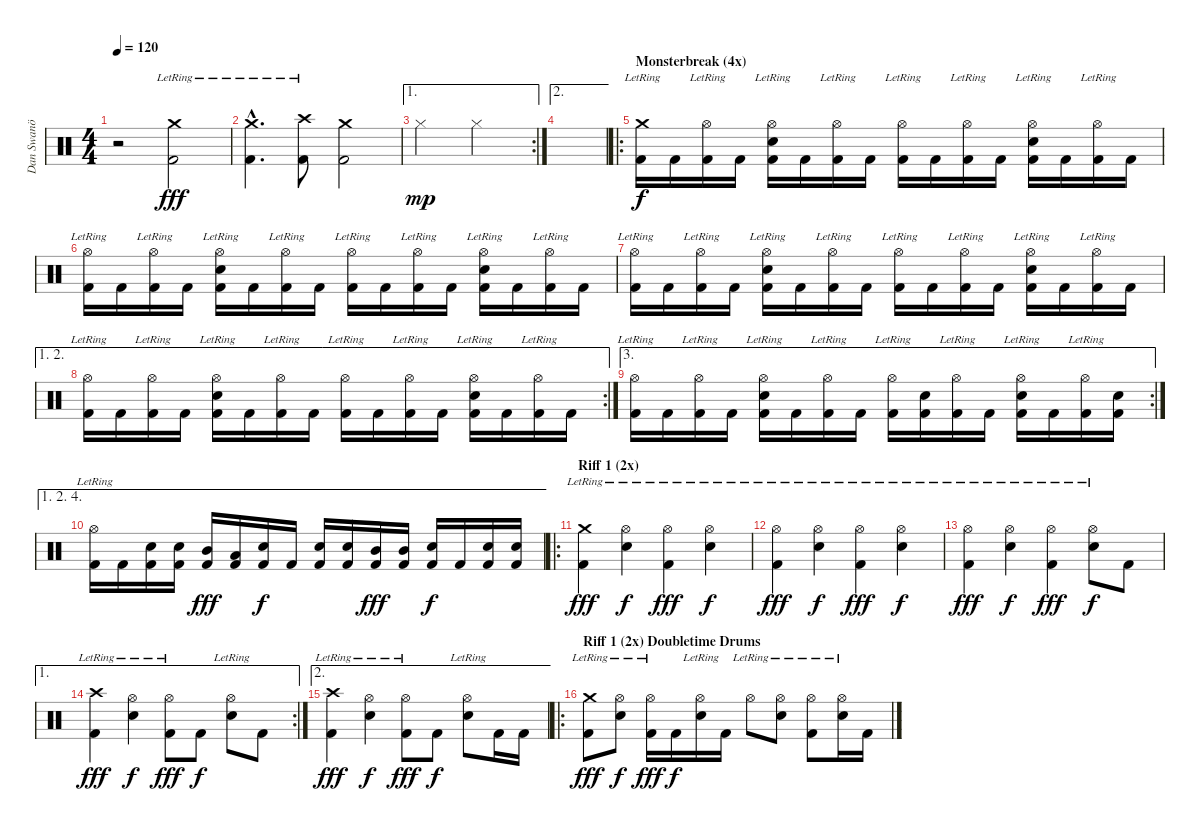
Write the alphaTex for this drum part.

\track ("Dan Swanö" "Dan Swanö") {instrument percussion}
\staff {score}
\articulation defaults
\ts (4 4)
\tempo 120
\clef neutral
\ks c
r.2{dy fff} ("Crash medium (hit)"{lr} "Kick (hit) 2").2 |
("Crash medium (hit)"{hac lr} "Kick (hit) 2"{hac}).4{d} ("Crash high (hit)"{lr} "Kick (hit) 2").8 ("Crash medium (hit)" "Kick (hit) 2").2 |
\ae 1
\rc 2 "Hi-Hat (closed)".2{dy mp} "Hi-Hat (closed)".2
|
\ae 2
|
\ro
\section ("" "Monsterbreak (4x)")
("Crash medium (hit)"{lr} "Kick (hit) 2").16{dy f} "Kick (hit) 2".16 ("Hi-Hat (open)"{lr} "Kick (hit) 2").16 "Kick (hit) 2".16 ("Hi-Hat (open)"{lr} "Electric Snare (hit)" "Kick (hit) 2").16 "Kick (hit) 2".16 ("Hi-Hat (open)"{lr} "Kick (hit) 2").16 "Kick (hit) 2".16 ("Hi-Hat (open)"{lr} "Kick (hit) 2").16 "Kick (hit) 2".16 ("Hi-Hat (open)"{lr} "Kick (hit) 2").16 "Kick (hit) 2".16 ("Hi-Hat (open)"{lr} "Electric Snare (hit)" "Kick (hit) 2").16 "Kick (hit) 2".16 ("Hi-Hat (open)"{lr} "Kick (hit) 2").16 "Kick (hit) 2".16 |
("Hi-Hat (open)"{lr} "Kick (hit) 2").16 "Kick (hit) 2".16 ("Hi-Hat (open)"{lr} "Kick (hit) 2").16 "Kick (hit) 2".16 ("Hi-Hat (open)"{lr} "Electric Snare (hit)" "Kick (hit) 2").16 "Kick (hit) 2".16 ("Hi-Hat (open)"{lr} "Kick (hit) 2").16 "Kick (hit) 2".16 ("Hi-Hat (open)"{lr} "Kick (hit) 2").16 "Kick (hit) 2".16 ("Hi-Hat (open)"{lr} "Kick (hit) 2").16 "Kick (hit) 2".16 ("Hi-Hat (open)"{lr} "Electric Snare (hit)" "Kick (hit) 2").16 "Kick (hit) 2".16 ("Hi-Hat (open)"{lr} "Kick (hit) 2").16 "Kick (hit) 2".16 |
("Hi-Hat (open)"{lr} "Kick (hit) 2").16 "Kick (hit) 2".16 ("Hi-Hat (open)"{lr} "Kick (hit) 2").16 "Kick (hit) 2".16 ("Hi-Hat (open)"{lr} "Electric Snare (hit)" "Kick (hit) 2").16 "Kick (hit) 2".16 ("Hi-Hat (open)"{lr} "Kick (hit) 2").16 "Kick (hit) 2".16 ("Hi-Hat (open)"{lr} "Kick (hit) 2").16 "Kick (hit) 2".16 ("Hi-Hat (open)"{lr} "Kick (hit) 2").16 "Kick (hit) 2".16 ("Hi-Hat (open)"{lr} "Electric Snare (hit)" "Kick (hit) 2").16 "Kick (hit) 2".16 ("Hi-Hat (open)"{lr} "Kick (hit) 2").16 "Kick (hit) 2".16 |
\ae (1 2)
\rc 2
("Hi-Hat (open)"{lr} "Kick (hit) 2").16 "Kick (hit) 2".16 ("Hi-Hat (open)"{lr} "Kick (hit) 2").16 "Kick (hit) 2".16 ("Hi-Hat (open)"{lr} "Electric Snare (hit)" "Kick (hit) 2").16 "Kick (hit) 2".16 ("Hi-Hat (open)"{lr} "Kick (hit) 2").16 "Kick (hit) 2".16 ("Hi-Hat (open)"{lr} "Kick (hit) 2").16 "Kick (hit) 2".16 ("Hi-Hat (open)"{lr} "Kick (hit) 2").16 "Kick (hit) 2".16 ("Hi-Hat (open)"{lr} "Electric Snare (hit)" "Kick (hit) 2").16 "Kick (hit) 2".16 ("Hi-Hat (open)"{lr} "Kick (hit) 2").16 "Kick (hit) 2".16 |
\ae 3
\rc 2
("Hi-Hat (open)"{lr} "Kick (hit) 2").16 "Kick (hit) 2".16 ("Hi-Hat (open)"{lr} "Kick (hit) 2").16 "Kick (hit) 2".16 ("Hi-Hat (open)"{lr} "Electric Snare (hit)" "Kick (hit) 2").16 "Kick (hit) 2".16 ("Hi-Hat (open)"{lr} "Kick (hit) 2").16 "Kick (hit) 2".16 ("Hi-Hat (open)"{lr} "Kick (hit) 2").16 ("Electric Snare (hit)" "Kick (hit) 2").16 ("Hi-Hat (open)"{lr} "Kick (hit) 2").16 "Kick (hit) 2".16 ("Hi-Hat (open)"{lr} "Electric Snare (hit)" "Kick (hit) 2").16 "Kick (hit) 2".16 ("Hi-Hat (open)"{lr} "Kick (hit) 2").16 ("Electric Snare (hit)" "Kick (hit) 2").16 |
\ae (1 2 4)
("Hi-Hat (open)"{lr} "Kick (hit) 2").16 "Kick (hit) 2".16 ("Electric Snare (hit)" "Kick (hit) 2").16 ("Electric Snare (hit)" "Kick (hit) 2").16 ("Mid Tom (hit)" "Kick (hit) 2").16{dy fff} ("Low Tom (hit)" "Kick (hit) 2").16 ("Electric Snare (hit)" "Kick (hit) 2").16{dy f} "Kick (hit) 2".16 ("Electric Snare (hit)" "Kick (hit) 2").16 ("Electric Snare (hit)" "Kick (hit) 2").16 ("Mid Tom (hit)" "Kick (hit) 2").16{dy fff} ("Mid Tom (hit)" "Kick (hit) 2").16 ("Electric Snare (hit)" "Kick (hit) 2").16{dy f} "Kick (hit) 2".16 ("Electric Snare (hit)" "Kick (hit) 2").16 ("Electric Snare (hit)" "Kick (hit) 2").16 |
\ro
\section ("" "Riff 1 (2x)")
("Crash medium (hit)"{lr} "Kick (hit) 2").4{dy fff} ("Hi-Hat (open)"{lr} "Electric Snare (hit)").4{dy f} ("Hi-Hat (open)"{lr} "Kick (hit) 2").4{dy fff} ("Hi-Hat (open)"{lr} "Electric Snare (hit)").4{dy f} |
("Hi-Hat (open)"{lr} "Kick (hit) 2").4{dy fff} ("Hi-Hat (open)"{lr} "Electric Snare (hit)").4{dy f} ("Hi-Hat (open)"{lr} "Kick (hit) 2").4{dy fff} ("Hi-Hat (open)"{lr} "Electric Snare (hit)").4{dy f} |
("Hi-Hat (open)"{lr} "Kick (hit) 2").4{dy fff} ("Hi-Hat (open)"{lr} "Electric Snare (hit)").4{dy f} ("Hi-Hat (open)"{lr} "Kick (hit) 2").4{dy fff} ("Hi-Hat (open)"{lr} "Electric Snare (hit)").8{dy f} "Kick (hit) 2".8 |
\ae 1
\rc 2
("Crash high (hit)"{lr} "Kick (hit) 2").4{dy fff} ("Hi-Hat (open)"{lr} "Electric Snare (hit)").4{dy f} ("Hi-Hat (open)"{lr} "Kick (hit) 2").8{dy fff} "Kick (hit) 2".8{dy f} ("Hi-Hat (open)"{lr} "Electric Snare (hit)").8 "Kick (hit) 2".8 |
\ae 2
("Crash high (hit)"{lr} "Kick (hit) 2").4{dy fff} ("Hi-Hat (open)"{lr} "Electric Snare (hit)").4{dy f} ("Hi-Hat (open)"{lr} "Kick (hit) 2").8{dy fff} "Kick (hit) 2".8{dy f} ("Hi-Hat (open)"{lr} "Electric Snare (hit)").8 "Kick (hit) 2".16 "Kick (hit) 2".16 |
\ro
\section ("" "Riff 1 (2x) Doubletime Drums")
("Crash medium (hit)"{lr} "Kick (hit) 2").8{dy fff} ("Hi-Hat (open)"{lr} "Electric Snare (hit)").8{dy f} ("Hi-Hat (open)"{lr} "Kick (hit) 2").16{dy fff} "Kick (hit) 2".16{dy f} ("Hi-Hat (open)"{lr} "Electric Snare (hit)").16 "Kick (hit) 2".16 "Hi-Hat (open)"{lr}.8 ("Hi-Hat (open)"{lr} "Electric Snare (hit)").8 ("Hi-Hat (open)"{lr} "Kick (hit) 2").8 ("Hi-Hat (open)"{lr} "Electric Snare (hit)").16 "Kick (hit) 2".16
